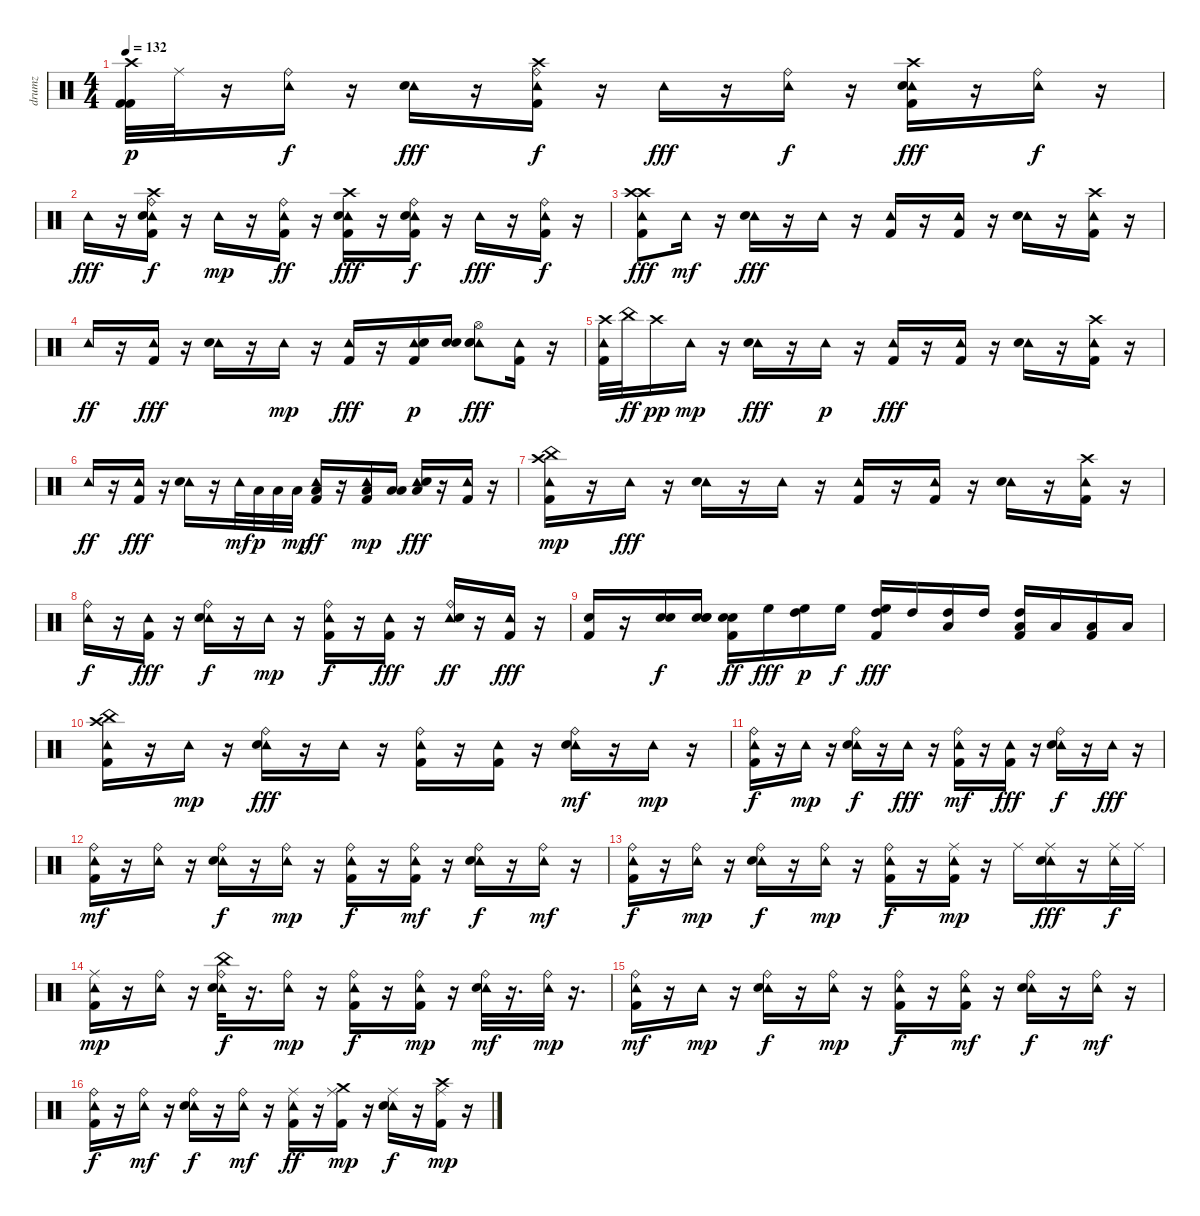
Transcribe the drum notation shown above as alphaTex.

\track ("drumz" "drumz") {instrument percussion}
\staff {score}
\articulation defaults
\ts (4 4)
\tempo 132
\clef neutral
\ks c
("Crash high (hit)" "Kick (hit) 2" "Kick (hit) 2").32{dy p} "Ride (middle)".32 r.16 ("Tambourine (hit)" "Ride (bell)").16{dy f} r.16 ("Tambourine (hit)" "Snare (hit) 2").16{dy fff} r.16 ("Tambourine (hit)" "Crash high (hit)" "Kick (hit) 2" "Ride (bell)").16{dy f} r.16 "Tambourine (hit)".16{dy fff} r.16 ("Tambourine (hit)" "Ride (bell)").16{dy f} r.16 ("Tambourine (hit)" "Crash high (hit)" "Snare (hit) 2" "Kick (hit) 2").16{dy fff} r.16 ("Tambourine (hit)" "Ride (bell)").16{dy f} r.16 |
"Tambourine (hit)".16{dy fff} r.16 ("Tambourine (hit)" "Crash high (hit)" "Snare (hit) 2" "Kick (hit) 2" "Ride (bell)").16{dy f} r.16 "Tambourine (hit)".16{dy mp} r.16 ("Tambourine (hit)" "Kick (hit) 2" "Ride (bell)").16{dy ff} r.16 ("Tambourine (hit)" "Crash high (hit)" "Snare (hit) 2" "Kick (hit) 2").16{dy fff} r.16 ("Tambourine (hit)" "Snare (hit) 2" "Kick (hit) 2" "Ride (bell)").16{dy f} r.16 "Tambourine (hit)".16{dy fff} r.16 ("Tambourine (hit)" "Kick (hit) 2" "Ride (bell)").16{dy f} r.16 |
("Tambourine (hit)" "Crash high (hit)" "Kick (hit) 2" "Crash high (hit)").8{dy fff} "Tambourine (hit)".16{dy mf} r.16 ("Tambourine (hit)" "Snare (hit) 2").16{dy fff} r.16 "Tambourine (hit)".16 r.16 ("Tambourine (hit)" "Kick (hit) 2").16 r.16 ("Tambourine (hit)" "Kick (hit) 2").16 r.16 ("Tambourine (hit)" "Snare (hit) 2").16 r.16 ("Tambourine (hit)" "Crash high (hit)" "Kick (hit) 2").16 r.16 |
"Tambourine (hit)".16{dy ff} r.16 ("Tambourine (hit)" "Kick (hit) 2").16{dy fff} r.16 ("Tambourine (hit)" "Snare (hit) 2").16 r.16 "Tambourine (hit)".16{dy mp} r.16 ("Tambourine (hit)" "Kick (hit) 2").16{dy fff} r.16 ("Tambourine (hit)" "Kick (hit) 2" "Snare (hit) 2").16{dy p} ("Snare (hit) 2" "Snare (hit) 2").16 ("Tambourine (hit)" "Snare (hit) 2" "Hi-Hat (open)" "Snare (hit) 2").8{dy fff} ("Tambourine (hit)" "Kick (hit) 2").16 r.16 |
("Tambourine (hit)" "Crash high (hit)" "Kick (hit) 2").32 "China (hit)".32{dy ff} "Crash high (hit)".16{dy pp} "Tambourine (hit)".16{dy mp} r.16 ("Tambourine (hit)" "Snare (hit) 2").16{dy fff} r.16 "Tambourine (hit)".16{dy p} r.16 ("Tambourine (hit)" "Kick (hit) 2").16{dy fff} r.16 ("Tambourine (hit)" "Kick (hit) 2").16 r.16 ("Tambourine (hit)" "Snare (hit) 2").16 r.16 ("Tambourine (hit)" "Crash high (hit)" "Kick (hit) 2").16 r.16 |
"Tambourine (hit)".16{dy ff} r.16 ("Tambourine (hit)" "Kick (hit) 2").16{dy fff} r.16 ("Tambourine (hit)" "Snare (hit) 2").16 r.16 "Tambourine (hit)".32{dy mf} "Low Tom (hit)".32{dy p} "Low Tom (hit)".32 "Low Tom (hit)".32{dy mp} ("Tambourine (hit)" "Kick (hit) 2" "Low Tom (hit)").16{dy ff} r.16 ("Tambourine (hit)" "Kick (hit) 2" "Low Floor Tom (hit)").16{dy mp} ("Low Floor Tom (hit)" "Low Floor Tom (hit)").16 ("Low Floor Tom (hit)" "Tambourine (hit)" "Snare (hit) 2").16{dy fff} r.16 ("Tambourine (hit)" "Kick (hit) 2").16 r.16 |
("Tambourine (hit)" "Crash high (hit)" "Kick (hit) 2" "China (hit)").16{dy mp} r.16 "Tambourine (hit)".16{dy fff} r.16 ("Tambourine (hit)" "Snare (hit) 2").16 r.16 "Tambourine (hit)".16 r.16 ("Tambourine (hit)" "Kick (hit) 2").16 r.16 ("Tambourine (hit)" "Kick (hit) 2").16 r.16 ("Tambourine (hit)" "Snare (hit) 2").16 r.16 ("Tambourine (hit)" "Crash high (hit)" "Kick (hit) 2").16 r.16 |
("Tambourine (hit)" "Ride (bell)").16{dy f} r.16 ("Tambourine (hit)" "Kick (hit) 2").16{dy fff} r.16 ("Tambourine (hit)" "Snare (hit) 2" "Ride (bell)").16{dy f} r.16 "Tambourine (hit)".16{dy mp} r.16 ("Tambourine (hit)" "Kick (hit) 2" "Ride (bell)").16{dy f} r.16 ("Tambourine (hit)" "Kick (hit) 2").16{dy fff} r.16 ("Tambourine (hit)" "Snare (hit) 2" "Ride (bell)").16{dy ff} r.16 ("Tambourine (hit)" "Kick (hit) 2").16{dy fff} r.16 |
("Snare (hit) 2" "Kick (hit) 2").16 r.16 ("Snare (hit) 2" "Snare (hit) 2").16{dy f} ("Snare (hit) 2" "Snare (hit) 2" "Snare (hit) 2").16 ("Snare (hit) 2" "Kick (hit) 2" "Snare (hit) 2").16{dy ff} "High Floor Tom (hit)".16{dy fff} ("High Tom (hit)" "High Floor Tom (hit)").16{dy p} "High Floor Tom (hit)".16{dy f} ("High Tom (hit)" "Kick (hit) 2" "High Floor Tom (hit)").16{dy fff} "High Tom (hit)".16 ("High Tom (hit)" "Low Tom (hit)").16 "High Tom (hit)".16 ("High Tom (hit)" "Low Tom (hit)" "Kick (hit) 2").16 "Low Tom (hit)".16 ("Low Floor Tom (hit)" "Kick (hit) 2").16 "Low Floor Tom (hit)".16 |
("Tambourine (hit)" "Crash high (hit)" "Kick (hit) 2" "China (hit)").16 r.16 "Tambourine (hit)".16{dy mp} r.16 ("Tambourine (hit)" "Snare (hit) 2" "Ride (bell)").16{dy fff} r.16 "Tambourine (hit)".16 r.16 ("Tambourine (hit)" "Kick (hit) 2" "Ride (bell)").16 r.16 ("Tambourine (hit)" "Kick (hit) 2").16 r.16 ("Tambourine (hit)" "Snare (hit) 2" "Ride (bell)").16{dy mf} r.16 "Tambourine (hit)".16{dy mp} r.16 |
("Tambourine (hit)" "Kick (hit) 2" "Ride (bell)").16{dy f} r.16 "Tambourine (hit)".16{dy mp} r.16 ("Tambourine (hit)" "Snare (hit) 2" "Ride (bell)").16{dy f} r.16 "Tambourine (hit)".16{dy fff} r.16 ("Tambourine (hit)" "Kick (hit) 2" "Ride (bell)").16{dy mf} r.16 ("Tambourine (hit)" "Kick (hit) 2").16{dy fff} r.16 ("Tambourine (hit)" "Snare (hit) 2" "Ride (bell)").16{dy f} r.16 "Tambourine (hit)".16{dy fff} r.16 |
("Tambourine (hit)" "Kick (hit) 2" "Ride (bell)").16{dy mf} r.16 ("Tambourine (hit)" "Ride (bell)").16 r.16 ("Tambourine (hit)" "Snare (hit) 2" "Ride (bell)").16{dy f} r.16 ("Tambourine (hit)" "Ride (bell)").16{dy mp} r.16 ("Tambourine (hit)" "Kick (hit) 2" "Ride (bell)").16{dy f} r.16 ("Tambourine (hit)" "Kick (hit) 2" "Ride (bell)").16{dy mf} r.16 ("Tambourine (hit)" "Snare (hit) 2" "Ride (bell)").16{dy f} r.16 ("Tambourine (hit)" "Ride (bell)").16{dy mf} r.16 |
("Tambourine (hit)" "Kick (hit) 2" "Ride (bell)").16{dy f} r.16 ("Tambourine (hit)" "Ride (bell)").16{dy mp} r.16 ("Tambourine (hit)" "Snare (hit) 2" "Ride (bell)").16{dy f} r.16 ("Tambourine (hit)" "Ride (bell)").16{dy mp} r.16 ("Tambourine (hit)" "Kick (hit) 2" "Ride (bell)").16{dy f} r.16 ("Tambourine (hit)" "Kick (hit) 2" "Ride (middle)").16{dy mp} r.16 "Ride (middle)".16 ("Ride (middle)" "Tambourine (hit)" "Snare (hit) 2").16{dy fff} r.16 ("Tambourine (hit)" "Ride (middle)").32{dy f} "Ride (middle)".32 |
("Tambourine (hit)" "Kick (hit) 2" "Ride (middle)").16{dy mp} r.16 ("Tambourine (hit)" "Ride (bell)").16 r.16 ("Tambourine (hit)" "Snare (hit) 2" "China (hit)" "Ride (bell)").32{dy f} r.16{d} ("Tambourine (hit)" "Ride (bell)").16{dy mp} r.16 ("Tambourine (hit)" "Kick (hit) 2" "Ride (bell)").16{dy f} r.16 ("Tambourine (hit)" "Kick (hit) 2" "Ride (bell)").16{dy mp} r.16 ("Tambourine (hit)" "Snare (hit) 2" "Ride (bell)").32{dy mf} r.16{d} ("Tambourine (hit)" "Ride (bell)").32{dy mp} r.16{d} |
("Tambourine (hit)" "Kick (hit) 2" "Ride (bell)").16{dy mf} r.16 "Tambourine (hit)".16{dy mp} r.16 ("Tambourine (hit)" "Snare (hit) 2" "Ride (bell)").16{dy f} r.16 ("Tambourine (hit)" "Ride (bell)").16{dy mp} r.16 ("Tambourine (hit)" "Kick (hit) 2" "Ride (bell)").16{dy f} r.16 ("Tambourine (hit)" "Kick (hit) 2" "Ride (bell)").16{dy mf} r.16 ("Tambourine (hit)" "Snare (hit) 2" "Ride (bell)").16{dy f} r.16 ("Tambourine (hit)" "Ride (bell)").16{dy mf} r.16 |
("Tambourine (hit)" "Kick (hit) 2" "Ride (bell)").16{dy f} r.16 ("Tambourine (hit)" "Ride (bell)").16{dy mf} r.16 ("Tambourine (hit)" "Snare (hit) 2" "Ride (bell)").16{dy f} r.16 ("Tambourine (hit)" "Ride (bell)").16{dy mf} r.16 ("Tambourine (hit)" "Kick (hit) 2" "Ride (middle)").16{dy ff} r.16 ("Crash medium (hit)" "Kick (hit) 2" "Ride (middle)").16{dy mp} r.16 ("Tambourine (hit)" "Snare (hit) 2" "Ride (middle)").16{dy f} r.16 ("Crash high (hit)" "Kick (hit) 2" "Ride (middle)").16{dy mp} r.16
